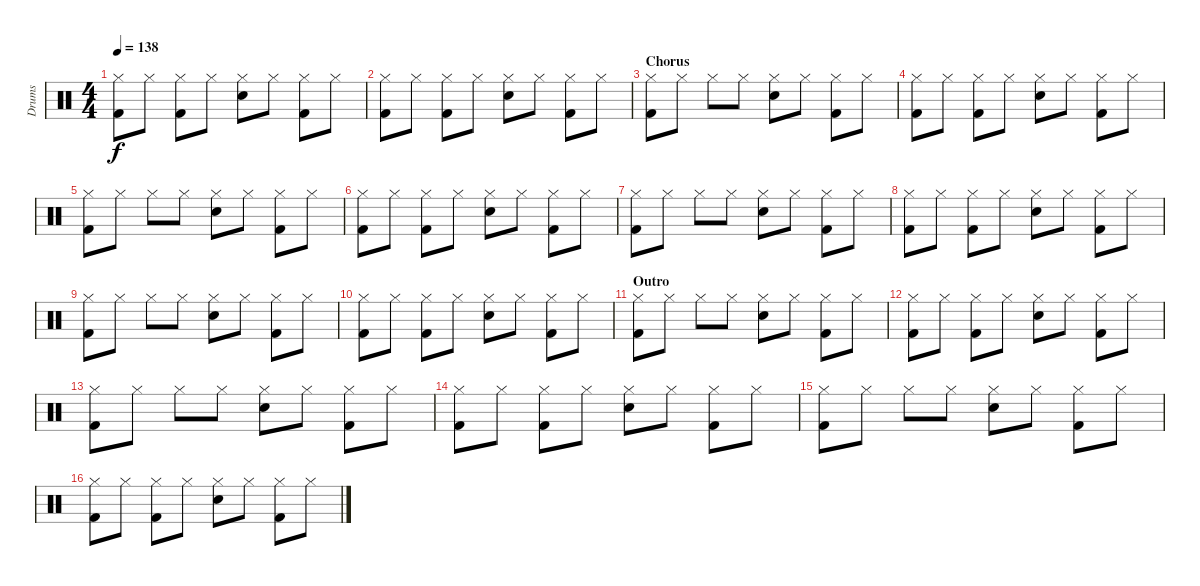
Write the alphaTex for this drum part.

\track ("Drums" "Drums") {instrument percussion}
\staff {score}
\articulation defaults
\ts (4 4)
\tempo 138
\clef neutral
\ks c
("Hi-Hat (closed)" "Kick (hit) 2").8{dy f} "Hi-Hat (closed)".8 ("Hi-Hat (closed)" "Kick (hit) 2").8 "Hi-Hat (closed)".8 ("Hi-Hat (closed)" "Electric Snare (hit)").8 "Hi-Hat (closed)".8 ("Hi-Hat (closed)" "Kick (hit) 2").8 "Hi-Hat (closed)".8 |
("Hi-Hat (closed)" "Kick (hit) 2").8 "Hi-Hat (closed)".8 ("Hi-Hat (closed)" "Kick (hit) 2").8 "Hi-Hat (closed)".8 ("Hi-Hat (closed)" "Electric Snare (hit)").8 "Hi-Hat (closed)".8 ("Hi-Hat (closed)" "Kick (hit) 2").8 "Hi-Hat (closed)".8 |
\section ("" "Chorus")
("Hi-Hat (closed)" "Kick (hit) 2").8 "Hi-Hat (closed)".8 "Hi-Hat (closed)".8 "Hi-Hat (closed)".8 ("Hi-Hat (closed)" "Electric Snare (hit)").8 "Hi-Hat (closed)".8 ("Hi-Hat (closed)" "Kick (hit) 2").8 "Hi-Hat (closed)".8 |
("Hi-Hat (closed)" "Kick (hit) 2").8 "Hi-Hat (closed)".8 ("Hi-Hat (closed)" "Kick (hit) 2").8 "Hi-Hat (closed)".8 ("Hi-Hat (closed)" "Electric Snare (hit)").8 "Hi-Hat (closed)".8 ("Hi-Hat (closed)" "Kick (hit) 2").8 "Hi-Hat (closed)".8 |
("Hi-Hat (closed)" "Kick (hit) 2").8 "Hi-Hat (closed)".8 "Hi-Hat (closed)".8 "Hi-Hat (closed)".8 ("Hi-Hat (closed)" "Electric Snare (hit)").8 "Hi-Hat (closed)".8 ("Hi-Hat (closed)" "Kick (hit) 2").8 "Hi-Hat (closed)".8 |
("Hi-Hat (closed)" "Kick (hit) 2").8 "Hi-Hat (closed)".8 ("Hi-Hat (closed)" "Kick (hit) 2").8 "Hi-Hat (closed)".8 ("Hi-Hat (closed)" "Electric Snare (hit)").8 "Hi-Hat (closed)".8 ("Hi-Hat (closed)" "Kick (hit) 2").8 "Hi-Hat (closed)".8 |
("Hi-Hat (closed)" "Kick (hit) 2").8 "Hi-Hat (closed)".8 "Hi-Hat (closed)".8 "Hi-Hat (closed)".8 ("Hi-Hat (closed)" "Electric Snare (hit)").8 "Hi-Hat (closed)".8 ("Hi-Hat (closed)" "Kick (hit) 2").8 "Hi-Hat (closed)".8 |
("Hi-Hat (closed)" "Kick (hit) 2").8 "Hi-Hat (closed)".8 ("Hi-Hat (closed)" "Kick (hit) 2").8 "Hi-Hat (closed)".8 ("Hi-Hat (closed)" "Electric Snare (hit)").8 "Hi-Hat (closed)".8 ("Hi-Hat (closed)" "Kick (hit) 2").8 "Hi-Hat (closed)".8 |
("Hi-Hat (closed)" "Kick (hit) 2").8 "Hi-Hat (closed)".8 "Hi-Hat (closed)".8 "Hi-Hat (closed)".8 ("Hi-Hat (closed)" "Electric Snare (hit)").8 "Hi-Hat (closed)".8 ("Hi-Hat (closed)" "Kick (hit) 2").8 "Hi-Hat (closed)".8 |
("Hi-Hat (closed)" "Kick (hit) 2").8 "Hi-Hat (closed)".8 ("Hi-Hat (closed)" "Kick (hit) 2").8 "Hi-Hat (closed)".8 ("Hi-Hat (closed)" "Electric Snare (hit)").8 "Hi-Hat (closed)".8 ("Hi-Hat (closed)" "Kick (hit) 2").8 "Hi-Hat (closed)".8 |
\section ("" "Outro")
("Hi-Hat (closed)" "Kick (hit) 2").8 "Hi-Hat (closed)".8 "Hi-Hat (closed)".8 "Hi-Hat (closed)".8 ("Hi-Hat (closed)" "Electric Snare (hit)").8 "Hi-Hat (closed)".8 ("Hi-Hat (closed)" "Kick (hit) 2").8 "Hi-Hat (closed)".8 |
("Hi-Hat (closed)" "Kick (hit) 2").8 "Hi-Hat (closed)".8 ("Hi-Hat (closed)" "Kick (hit) 2").8 "Hi-Hat (closed)".8 ("Hi-Hat (closed)" "Electric Snare (hit)").8 "Hi-Hat (closed)".8 ("Hi-Hat (closed)" "Kick (hit) 2").8 "Hi-Hat (closed)".8 |
("Hi-Hat (closed)" "Kick (hit) 2").8 "Hi-Hat (closed)".8 "Hi-Hat (closed)".8 "Hi-Hat (closed)".8 ("Hi-Hat (closed)" "Electric Snare (hit)").8 "Hi-Hat (closed)".8 ("Hi-Hat (closed)" "Kick (hit) 2").8 "Hi-Hat (closed)".8 |
("Hi-Hat (closed)" "Kick (hit) 2").8 "Hi-Hat (closed)".8 ("Hi-Hat (closed)" "Kick (hit) 2").8 "Hi-Hat (closed)".8 ("Hi-Hat (closed)" "Electric Snare (hit)").8 "Hi-Hat (closed)".8 ("Hi-Hat (closed)" "Kick (hit) 2").8 "Hi-Hat (closed)".8 |
("Hi-Hat (closed)" "Kick (hit) 2").8 "Hi-Hat (closed)".8 "Hi-Hat (closed)".8 "Hi-Hat (closed)".8 ("Hi-Hat (closed)" "Electric Snare (hit)").8 "Hi-Hat (closed)".8 ("Hi-Hat (closed)" "Kick (hit) 2").8 "Hi-Hat (closed)".8 |
("Hi-Hat (closed)" "Kick (hit) 2").8 "Hi-Hat (closed)".8 ("Hi-Hat (closed)" "Kick (hit) 2").8 "Hi-Hat (closed)".8 ("Hi-Hat (closed)" "Electric Snare (hit)").8 "Hi-Hat (closed)".8 ("Hi-Hat (closed)" "Kick (hit) 2").8 "Hi-Hat (closed)".8
